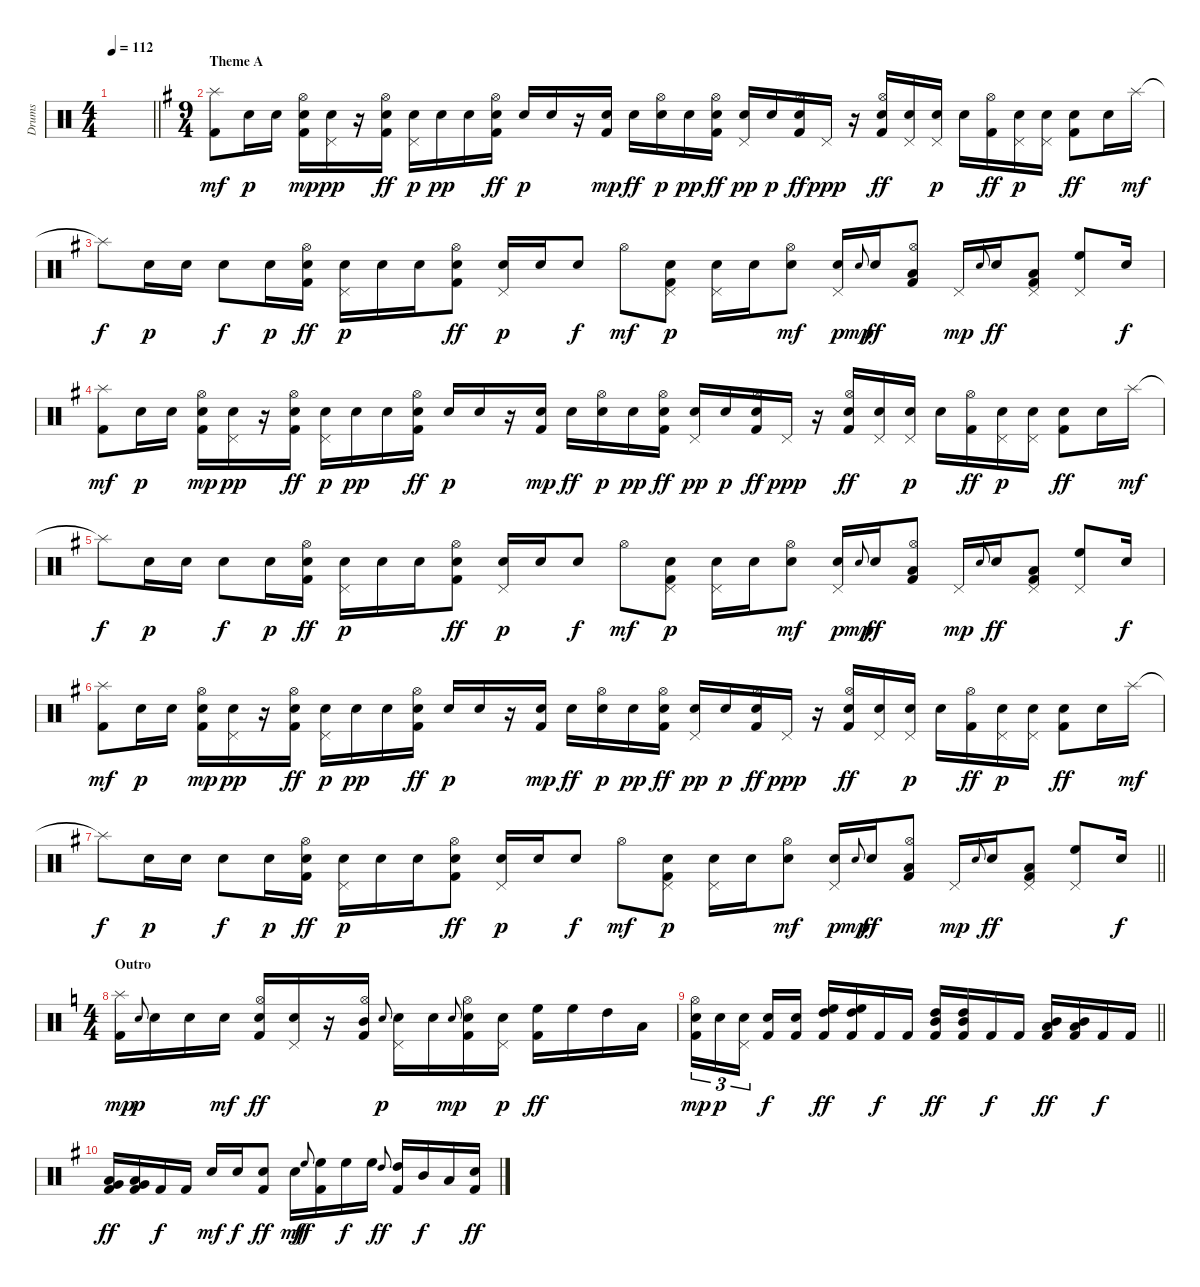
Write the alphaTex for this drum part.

\track ("Drums" "Drums") {instrument percussion}
\staff {score}
\articulation defaults
\ts (4 4)
\tempo 112
\clef neutral
\barLineRight lightlight
\ks c
|
\ts (9 4)
\section ("" "Theme A")
\ks g
("Splash (hit)" "Kick (hit) 2").8{dy mf} "Snare (hit) 2".16{dy p} "Snare (hit) 2".16 ("Hi-Hat (open)" "Electric Snare (hit)" "Kick (hit) 2").16{dy mp} ("Pedal Hi-Hat (hit)" "Snare (hit) 2").16{dy pp} r.16 ("Hi-Hat (open)" "Snare (hit) 2" "Kick (hit) 2").16{dy ff} ("Pedal Hi-Hat (hit)" "Snare (hit) 2").16{dy p} "Snare (hit) 2".16{dy pp} "Snare (hit) 2".16 ("Hi-Hat (open)" "Snare (hit) 2" "Kick (hit) 2").16{dy ff} "Snare (hit) 2".16{dy p} "Snare (hit) 2".16 r.16 ("Snare (hit) 2" "Kick (hit) 2").16{dy mp} "Electric Snare (hit)".16{dy ff} ("Hi-Hat (open)" "Snare (hit) 2").16{dy p} "Snare (hit) 2".16{dy pp} ("Hi-Hat (open)" "Electric Snare (hit)" "Kick (hit) 2").16{dy ff} ("Pedal Hi-Hat (hit)" "Snare (hit) 2").16{dy pp} "Snare (hit) 2".16{dy p} ("Hi-Hat (open)" "Electric Snare (hit)" "Kick (hit) 2").16{dy ff} "Pedal Hi-Hat (hit)".16{dy ppp} r.16 ("Hi-Hat (open)" "Electric Snare (hit)" "Kick (hit) 2").16{dy ff} ("Pedal Hi-Hat (hit)" "Electric Snare (hit)").16 ("Pedal Hi-Hat (hit)" "Snare (hit) 2").16{dy p} "Snare (hit) 2".16 ("Hi-Hat (open)" "Kick (hit) 2").16{dy ff} ("Pedal Hi-Hat (hit)" "Snare (hit) 2").16{dy p} ("Pedal Hi-Hat (hit)" "Snare (hit) 2").16 ("Snare (hit) 2" "Kick (hit) 2").8{dy ff} "Electric Snare (hit)".16 "Splash (hit)".16{dy mf} |
"Splash (hit)"{t}.8{dy f} "Snare (hit) 2".16{dy p} "Snare (hit) 2".16 "Electric Snare (hit)".8{dy f} "Snare (hit) 2".16{dy p} ("Hi-Hat (open)" "Snare (hit) 2" "Kick (hit) 2").16{dy ff} ("Pedal Hi-Hat (hit)" "Snare (hit) 2").16{dy p} "Snare (hit) 2".16 "Snare (hit) 2".16 ("Hi-Hat (open)" "Snare (hit) 2" "Kick (hit) 2").8{dy ff} ("Pedal Hi-Hat (hit)" "Snare (hit) 2").16{dy p} "Snare (hit) 2".16 "Electric Snare (hit)".8{dy f} "Hi-Hat (open)".8{dy mf} ("Pedal Hi-Hat (hit)" "Electric Snare (hit)" "Kick (hit) 2").8{dy p} ("Pedal Hi-Hat (hit)" "Snare (hit) 2").16 "Snare (hit) 2".16 ("Hi-Hat (open)" "Electric Snare (hit)").8{dy mf} ("Pedal Hi-Hat (hit)" "Snare (hit) 2").16{dy p} "Electric Snare (hit)".8{gr onbeat dy mp} "Electric Snare (hit)".16{dy ff} ("Hi-Hat (open)" "Low Tom (hit)" "Kick (hit) 2").8 "Pedal Hi-Hat (hit)".16{dy mp} "Electric Snare (hit)".8{gr onbeat} "Electric Snare (hit)".16{dy ff} ("Pedal Hi-Hat (hit)" "Low Tom (hit)" "Kick (hit) 2").8 ("Pedal Hi-Hat (hit)" "High Floor Tom (hit)").8 "Electric Snare (hit)".16{dy f} |
("Splash (hit)" "Kick (hit) 2").8{dy mf} "Snare (hit) 2".16{dy p} "Snare (hit) 2".16 ("Hi-Hat (open)" "Electric Snare (hit)" "Kick (hit) 2").16{dy mp} ("Pedal Hi-Hat (hit)" "Snare (hit) 2").16{dy pp} r.16 ("Hi-Hat (open)" "Snare (hit) 2" "Kick (hit) 2").16{dy ff} ("Pedal Hi-Hat (hit)" "Snare (hit) 2").16{dy p} "Snare (hit) 2".16{dy pp} "Snare (hit) 2".16 ("Hi-Hat (open)" "Snare (hit) 2" "Kick (hit) 2").16{dy ff} "Snare (hit) 2".16{dy p} "Snare (hit) 2".16 r.16 ("Snare (hit) 2" "Kick (hit) 2").16{dy mp} "Electric Snare (hit)".16{dy ff} ("Hi-Hat (open)" "Snare (hit) 2").16{dy p} "Snare (hit) 2".16{dy pp} ("Hi-Hat (open)" "Electric Snare (hit)" "Kick (hit) 2").16{dy ff} ("Pedal Hi-Hat (hit)" "Snare (hit) 2").16{dy pp} "Snare (hit) 2".16{dy p} ("Hi-Hat (open)" "Electric Snare (hit)" "Kick (hit) 2").16{dy ff} "Pedal Hi-Hat (hit)".16{dy ppp} r.16 ("Hi-Hat (open)" "Electric Snare (hit)" "Kick (hit) 2").16{dy ff} ("Pedal Hi-Hat (hit)" "Electric Snare (hit)").16 ("Pedal Hi-Hat (hit)" "Snare (hit) 2").16{dy p} "Snare (hit) 2".16 ("Hi-Hat (open)" "Kick (hit) 2").16{dy ff} ("Pedal Hi-Hat (hit)" "Snare (hit) 2").16{dy p} ("Pedal Hi-Hat (hit)" "Snare (hit) 2").16 ("Snare (hit) 2" "Kick (hit) 2").8{dy ff} "Electric Snare (hit)".16 "Splash (hit)".16{dy mf} |
"Splash (hit)"{t}.8{dy f} "Snare (hit) 2".16{dy p} "Snare (hit) 2".16 "Electric Snare (hit)".8{dy f} "Snare (hit) 2".16{dy p} ("Hi-Hat (open)" "Snare (hit) 2" "Kick (hit) 2").16{dy ff} ("Pedal Hi-Hat (hit)" "Snare (hit) 2").16{dy p} "Snare (hit) 2".16 "Snare (hit) 2".16 ("Hi-Hat (open)" "Snare (hit) 2" "Kick (hit) 2").8{dy ff} ("Pedal Hi-Hat (hit)" "Snare (hit) 2").16{dy p} "Snare (hit) 2".16 "Electric Snare (hit)".8{dy f} "Hi-Hat (open)".8{dy mf} ("Pedal Hi-Hat (hit)" "Electric Snare (hit)" "Kick (hit) 2").8{dy p} ("Pedal Hi-Hat (hit)" "Snare (hit) 2").16 "Snare (hit) 2".16 ("Hi-Hat (open)" "Electric Snare (hit)").8{dy mf} ("Pedal Hi-Hat (hit)" "Snare (hit) 2").16{dy p} "Electric Snare (hit)".8{gr onbeat dy mp} "Electric Snare (hit)".16{dy ff} ("Hi-Hat (open)" "Low Tom (hit)" "Kick (hit) 2").8 "Pedal Hi-Hat (hit)".16{dy mp} "Electric Snare (hit)".8{gr onbeat} "Electric Snare (hit)".16{dy ff} ("Pedal Hi-Hat (hit)" "Low Tom (hit)" "Kick (hit) 2").8 ("Pedal Hi-Hat (hit)" "High Floor Tom (hit)").8 "Electric Snare (hit)".16{dy f} |
("Splash (hit)" "Kick (hit) 2").8{dy mf} "Snare (hit) 2".16{dy p} "Snare (hit) 2".16 ("Hi-Hat (open)" "Electric Snare (hit)" "Kick (hit) 2").16{dy mp} ("Pedal Hi-Hat (hit)" "Snare (hit) 2").16{dy pp} r.16 ("Hi-Hat (open)" "Snare (hit) 2" "Kick (hit) 2").16{dy ff} ("Pedal Hi-Hat (hit)" "Snare (hit) 2").16{dy p} "Snare (hit) 2".16{dy pp} "Snare (hit) 2".16 ("Hi-Hat (open)" "Snare (hit) 2" "Kick (hit) 2").16{dy ff} "Snare (hit) 2".16{dy p} "Snare (hit) 2".16 r.16 ("Snare (hit) 2" "Kick (hit) 2").16{dy mp} "Electric Snare (hit)".16{dy ff} ("Hi-Hat (open)" "Snare (hit) 2").16{dy p} "Snare (hit) 2".16{dy pp} ("Hi-Hat (open)" "Electric Snare (hit)" "Kick (hit) 2").16{dy ff} ("Pedal Hi-Hat (hit)" "Snare (hit) 2").16{dy pp} "Snare (hit) 2".16{dy p} ("Hi-Hat (open)" "Electric Snare (hit)" "Kick (hit) 2").16{dy ff} "Pedal Hi-Hat (hit)".16{dy ppp} r.16 ("Hi-Hat (open)" "Electric Snare (hit)" "Kick (hit) 2").16{dy ff} ("Pedal Hi-Hat (hit)" "Electric Snare (hit)").16 ("Pedal Hi-Hat (hit)" "Snare (hit) 2").16{dy p} "Snare (hit) 2".16 ("Hi-Hat (open)" "Kick (hit) 2").16{dy ff} ("Pedal Hi-Hat (hit)" "Snare (hit) 2").16{dy p} ("Pedal Hi-Hat (hit)" "Snare (hit) 2").16 ("Snare (hit) 2" "Kick (hit) 2").8{dy ff} "Electric Snare (hit)".16 "Splash (hit)".16{dy mf} |
\barLineRight lightlight "Splash (hit)"{t}.8{dy f} "Snare (hit) 2".16{dy p} "Snare (hit) 2".16 "Electric Snare (hit)".8{dy f} "Snare (hit) 2".16{dy p}
("Hi-Hat (open)" "Snare (hit) 2" "Kick (hit) 2").16{dy ff} ("Pedal Hi-Hat (hit)" "Snare (hit) 2").16{dy p} "Snare (hit) 2".16 "Snare (hit) 2".16 ("Hi-Hat (open)" "Snare (hit) 2" "Kick (hit) 2").8{dy ff} ("Pedal Hi-Hat (hit)" "Snare (hit) 2").16{dy p} "Snare (hit) 2".16 "Electric Snare (hit)".8{dy f} "Hi-Hat (open)".8{dy mf} ("Pedal Hi-Hat (hit)" "Electric Snare (hit)" "Kick (hit) 2").8{dy p} ("Pedal Hi-Hat (hit)" "Snare (hit) 2").16 "Snare (hit) 2".16 ("Hi-Hat (open)" "Electric Snare (hit)").8{dy mf} ("Pedal Hi-Hat (hit)" "Snare (hit) 2").16{dy p} "Electric Snare (hit)".8{gr onbeat dy mp} "Electric Snare (hit)".16{dy ff} ("Hi-Hat (open)" "Low Tom (hit)" "Kick (hit) 2").8 "Pedal Hi-Hat (hit)".16{dy mp} "Electric Snare (hit)".8{gr onbeat} "Electric Snare (hit)".16{dy ff} ("Pedal Hi-Hat (hit)" "Low Tom (hit)" "Kick (hit) 2").8 ("Pedal Hi-Hat (hit)" "High Floor Tom (hit)").8 "Electric Snare (hit)".16{dy f} |
\ts (4 4)
\section ("" "Outro")
\ks c
("Splash (hit)" "Kick (hit) 2").16{dy mp} "Snare (hit) 2".8{gr onbeat dy p} "Snare (hit) 2".16 "Snare (hit) 2".16 "Snare (hit) 2".16{dy mf} ("Hi-Hat (open)" "Electric Snare (hit)" "Kick (hit) 2").16{dy ff} ("Pedal Hi-Hat (hit)" "Electric Snare (hit)").16 r.16 ("Hi-Hat (open)" "Mid Tom (hit)" "Kick (hit) 2").16 "Snare (hit) 2".8{gr onbeat dy p} ("Pedal Hi-Hat (hit)" "Snare (hit) 2").16 "Snare (hit) 2".16 "Snare (hit) 2".8{gr onbeat dy mp} ("Hi-Hat (open)" "Snare (hit) 2" "Kick (hit) 2").16 ("Pedal Hi-Hat (hit)" "Snare (hit) 2").16{dy p} ("High Floor Tom (hit)" "Kick (hit) 2").16{dy ff} "High Floor Tom (hit)".16 "High Tom (hit)".16 "Low Tom (hit)".16 |
\barLineRight lightlight
("Hi-Hat (open)" "Snare (hit) 2" "Kick (hit) 2").16{tu (3 2) dy mp} "Snare (hit) 2".16{tu (3 2) dy p} ("Pedal Hi-Hat (hit)" "Snare (hit) 2").16{tu (3 2) beam splitsecondary} ("Electric Snare (hit)" "Kick (hit) 2").16{dy f} ("Electric Snare (hit)" "Kick (hit) 2").16 ("High Floor Tom (hit)" "High Tom (hit)" "Kick (hit) 2").16{dy ff} ("High Floor Tom (hit)" "High Tom (hit)" "Kick (hit) 2").16 "Kick (hit) 2".16{dy f} "Kick (hit) 2".16 ("High Tom (hit)" "Mid Tom (hit)" "Kick (hit) 2").16{dy ff} ("High Tom (hit)" "Mid Tom (hit)" "Kick (hit) 2").16 "Kick (hit) 2".16{dy f} "Kick (hit) 2".16 ("Mid Tom (hit)" "Low Tom (hit)" "Kick (hit) 2").16{dy ff} ("Mid Tom (hit)" "Low Tom (hit)" "Kick (hit) 2").16 "Kick (hit) 2".16{dy f} "Kick (hit) 2".16 |
\ks g
("Low Tom (hit)" "Very Low Tom (hit)" "Kick (hit) 2").16{dy ff} ("Low Tom (hit)" "Very Low Tom (hit)" "Kick (hit) 2").16 "Kick (hit) 2".16{dy f} "Kick (hit) 2".16 "Snare (hit) 2".16{dy mf} "Snare (hit) 2".16{dy f} ("Electric Snare (hit)" "Kick (hit) 2").8{dy ff} "Electric Snare (hit)".16{dy mf} "High Floor Tom (hit)".8{gr onbeat dy ff} ("High Floor Tom (hit)" "Kick (hit) 2").16 "High Floor Tom (hit)".16{dy f} "High Floor Tom (hit)".16 "High Tom (hit)".8{gr onbeat dy ff} ("High Tom (hit)" "Kick (hit) 2").16 "Mid Tom (hit)".16{dy f} "Low Tom (hit)".16 ("Electric Snare (hit)" "Kick (hit) 2").16{dy ff}
